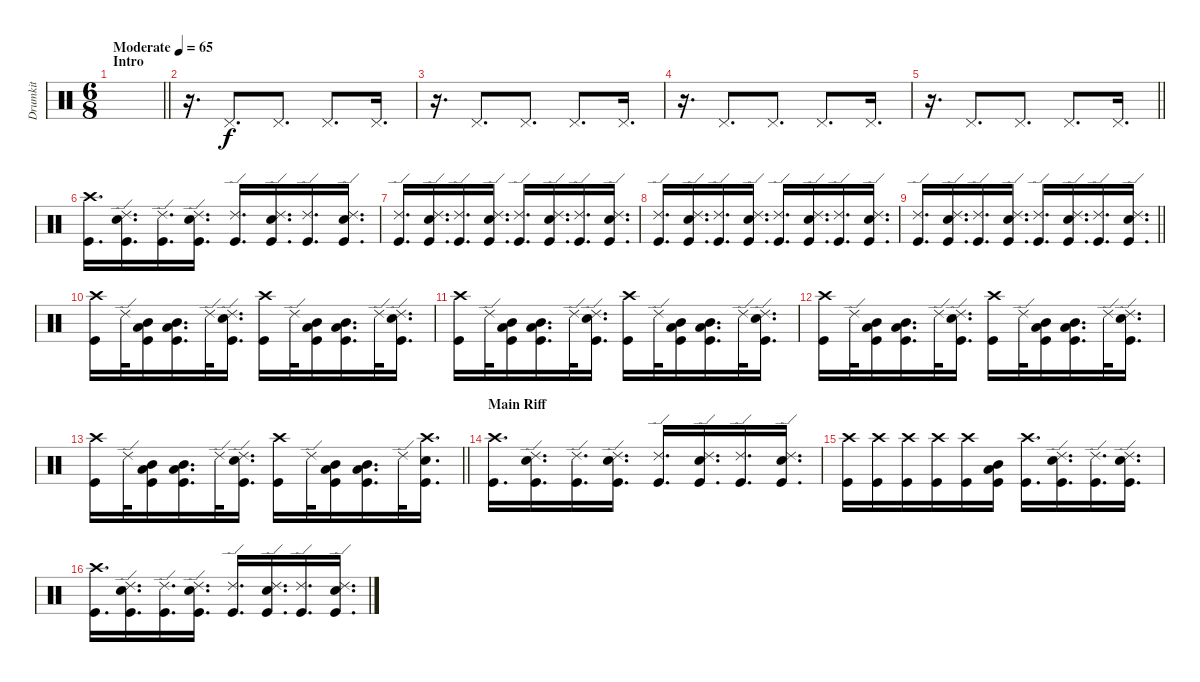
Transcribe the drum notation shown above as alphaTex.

\track ("Drumkit" "Drumkit") {instrument percussion}
\staff {score}
\articulation defaults
\ts (6 8)
\section ("" "Intro")
\tempo (65 "Moderate")
\clef neutral
\barLineRight lightlight
\ks c
|
r.16{d} "Pedal Hi-Hat (hit)".8{d} "Pedal Hi-Hat (hit)".8{d} "Pedal Hi-Hat (hit)".8{d} "Pedal Hi-Hat (hit)".16{d} |
r.16{d} "Pedal Hi-Hat (hit)".8{d} "Pedal Hi-Hat (hit)".8{d} "Pedal Hi-Hat (hit)".8{d} "Pedal Hi-Hat (hit)".16{d} |
r.16{d} "Pedal Hi-Hat (hit)".8{d} "Pedal Hi-Hat (hit)".8{d} "Pedal Hi-Hat (hit)".8{d} "Pedal Hi-Hat (hit)".16{d} |
\barLineRight lightlight
r.16{d} "Pedal Hi-Hat (hit)".8{d} "Pedal Hi-Hat (hit)".8{d} "Pedal Hi-Hat (hit)".8{d} "Pedal Hi-Hat (hit)".16{d} |
("Kick (hit)" "Crash high (hit)").16{d} ("Kick (hit)" "Snare (hit) 2" "Ride (edge) 2").16{d} ("Kick (hit)" "Ride (edge) 2").16{d} ("Kick (hit)" "Snare (hit) 2" "Ride (edge) 2").16{d} ("Kick (hit)" "Ride (edge) 2").16{d} ("Kick (hit)" "Snare (hit) 2" "Ride (edge) 2").16{d} ("Kick (hit)" "Ride (edge) 2").16{d} ("Kick (hit)" "Snare (hit) 2" "Ride (edge) 2").16{d} |
("Kick (hit)" "Ride (edge) 2").16{d} ("Kick (hit)" "Snare (hit) 2" "Ride (edge) 2").16{d} ("Kick (hit)" "Ride (edge) 2").16{d} ("Kick (hit)" "Snare (hit) 2" "Ride (edge) 2").16{d} ("Kick (hit)" "Ride (edge) 2").16{d} ("Kick (hit)" "Snare (hit) 2" "Ride (edge) 2").16{d} ("Kick (hit)" "Ride (edge) 2").16{d} ("Kick (hit)" "Snare (hit) 2" "Ride (edge) 2").16{d} |
("Kick (hit)" "Ride (edge) 2").16{d} ("Kick (hit)" "Snare (hit) 2" "Ride (edge) 2").16{d} ("Kick (hit)" "Ride (edge) 2").16{d} ("Kick (hit)" "Snare (hit) 2" "Ride (edge) 2").16{d} ("Kick (hit)" "Ride (edge) 2").16{d} ("Kick (hit)" "Snare (hit) 2" "Ride (edge) 2").16{d} ("Kick (hit)" "Ride (edge) 2").16{d} ("Kick (hit)" "Snare (hit) 2" "Ride (edge) 2").16{d} |
\barLineRight lightlight
("Kick (hit)" "Ride (edge) 2").16{d} ("Kick (hit)" "Snare (hit) 2" "Ride (edge) 2").16{d} ("Kick (hit)" "Ride (edge) 2").16{d} ("Kick (hit)" "Snare (hit) 2" "Ride (edge) 2").16{d} ("Kick (hit)" "Ride (edge) 2").16{d} ("Kick (hit)" "Snare (hit) 2" "Ride (edge) 2").16{d} ("Kick (hit)" "Ride (edge) 2").16{d} ("Kick (hit)" "Snare (hit) 2" "Ride (edge) 2").16{d} |
("Kick (hit)" "Crash high (hit)").16 "Ride (edge) 2".32 ("Kick (hit)" "Mid Tom (hit)" "Low Floor Tom (hit)").16 ("Kick (hit)" "Mid Tom (hit)" "Low Floor Tom (hit)").16{d} "Ride (edge) 2".32 ("Kick (hit)" "Snare (hit) 2" "Ride (edge) 2").16{d} ("Kick (hit)" "Crash high (hit)").16 "Ride (edge) 2".32 ("Kick (hit)" "Mid Tom (hit)" "Low Floor Tom (hit)").16 ("Kick (hit)" "Mid Tom (hit)" "Low Floor Tom (hit)").16{d} "Ride (edge) 2".32 ("Kick (hit)" "Snare (hit) 2" "Ride (edge) 2").16{d} |
("Kick (hit)" "Crash high (hit)").16 "Ride (edge) 2".32 ("Kick (hit)" "Mid Tom (hit)" "Low Floor Tom (hit)").16 ("Kick (hit)" "Mid Tom (hit)" "Low Floor Tom (hit)").16{d} "Ride (edge) 2".32 ("Kick (hit)" "Snare (hit) 2" "Ride (edge) 2").16{d} ("Kick (hit)" "Crash high (hit)").16 "Ride (edge) 2".32 ("Kick (hit)" "Mid Tom (hit)" "Low Floor Tom (hit)").16 ("Kick (hit)" "Mid Tom (hit)" "Low Floor Tom (hit)").16{d} "Ride (edge) 2".32 ("Kick (hit)" "Snare (hit) 2" "Ride (edge) 2").16{d} |
("Kick (hit)" "Crash high (hit)").16 "Ride (edge) 2".32 ("Kick (hit)" "Mid Tom (hit)" "Low Floor Tom (hit)").16 ("Kick (hit)" "Mid Tom (hit)" "Low Floor Tom (hit)").16{d} "Ride (edge) 2".32 ("Kick (hit)" "Snare (hit) 2" "Ride (edge) 2").16{d} ("Kick (hit)" "Crash high (hit)").16 "Ride (edge) 2".32 ("Kick (hit)" "Mid Tom (hit)" "Low Floor Tom (hit)").16 ("Kick (hit)" "Mid Tom (hit)" "Low Floor Tom (hit)").16{d} "Ride (edge) 2".32 ("Kick (hit)" "Snare (hit) 2" "Ride (edge) 2").16{d} |
\barLineRight lightlight
("Kick (hit)" "Crash high (hit)").16 "Ride (edge) 2".32 ("Kick (hit)" "Mid Tom (hit)" "Low Floor Tom (hit)").16 ("Kick (hit)" "Mid Tom (hit)" "Low Floor Tom (hit)").16{d} "Ride (edge) 2".32 ("Kick (hit)" "Snare (hit) 2" "Ride (edge) 2").16{d} ("Kick (hit)" "Crash high (hit)").16 "Ride (edge) 2".32 ("Kick (hit)" "Mid Tom (hit)" "Low Floor Tom (hit)").16 ("Kick (hit)" "Mid Tom (hit)" "Low Floor Tom (hit)").16{d} "Ride (edge) 2".32 ("Kick (hit)" "Snare (hit) 2" "Crash high (hit)").16{d} |
\section ("" "Main Riff")
("Kick (hit)" "Crash high (hit)").16{d} ("Kick (hit)" "Snare (hit) 2" "Ride (edge) 2").16{d} ("Kick (hit)" "Ride (edge) 2").16{d} ("Kick (hit)" "Snare (hit) 2" "Ride (edge) 2").16{d} ("Kick (hit)" "Ride (edge) 2").16{d} ("Kick (hit)" "Snare (hit) 2" "Ride (edge) 2").16{d} ("Kick (hit)" "Ride (edge) 2").16{d} ("Kick (hit)" "Snare (hit) 2" "Ride (edge) 2").16{d} |
("Kick (hit)" "Crash high (hit)").16 ("Kick (hit)" "Crash high (hit)").16 ("Kick (hit)" "Crash high (hit)").16 ("Kick (hit)" "Crash high (hit)").16 ("Kick (hit)" "Crash high (hit)").16 ("Kick (hit)" "Mid Tom (hit)" "Low Floor Tom (hit)").16 ("Kick (hit)" "Crash high (hit)").16{d} ("Kick (hit)" "Snare (hit) 2" "Ride (edge) 2").16{d} ("Kick (hit)" "Ride (edge) 2").16{d} ("Kick (hit)" "Snare (hit) 2" "Ride (edge) 2").16{d} |
("Kick (hit)" "Crash high (hit)").16{d} ("Kick (hit)" "Snare (hit) 2" "Ride (edge) 2").16{d} ("Kick (hit)" "Ride (edge) 2").16{d} ("Kick (hit)" "Snare (hit) 2" "Ride (edge) 2").16{d} ("Kick (hit)" "Ride (edge) 2").16{d} ("Kick (hit)" "Snare (hit) 2" "Ride (edge) 2").16{d} ("Kick (hit)" "Ride (edge) 2").16{d} ("Kick (hit)" "Snare (hit) 2" "Ride (edge) 2").16{d}
